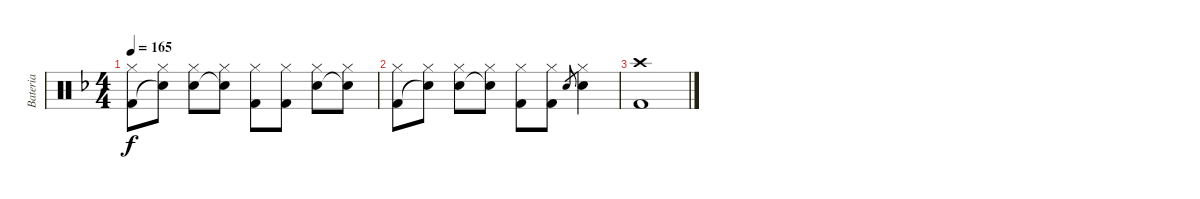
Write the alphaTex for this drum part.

\track ("Bateria" "Bateria") {instrument percussion}
\staff {score}
\articulation defaults
\ts (4 4)
\tempo 165
\clef neutral
\ks dminor
("Hi-Hat (closed)" "Kick (hit) 2").8{dy f} ("Hi-Hat (closed)" "Snare (hit)"{t}).8 ("Hi-Hat (closed)" "Snare (hit) 2").8 ("Hi-Hat (closed)" "Snare (hit)"{t}).8 ("Hi-Hat (closed)" "Kick (hit) 2").8 ("Hi-Hat (closed)" "Kick (hit) 2").8 ("Hi-Hat (closed)" "Snare (hit) 2").8 ("Hi-Hat (closed)" "Snare (hit)"{t}).8 |
("Hi-Hat (closed)" "Kick (hit) 2").8 ("Hi-Hat (closed)" "Snare (hit)"{t}).8 ("Hi-Hat (closed)" "Snare (hit) 2").8 ("Hi-Hat (closed)" "Snare (hit)"{t}).8 ("Hi-Hat (closed)" "Kick (hit) 2").8 ("Hi-Hat (closed)" "Kick (hit) 2").8 "Snare (hit) 2".8{gr} ("Hi-Hat (closed)" "Snare (hit) 2").4 |
("Crash high (hit)" "Kick (hit) 2").1
